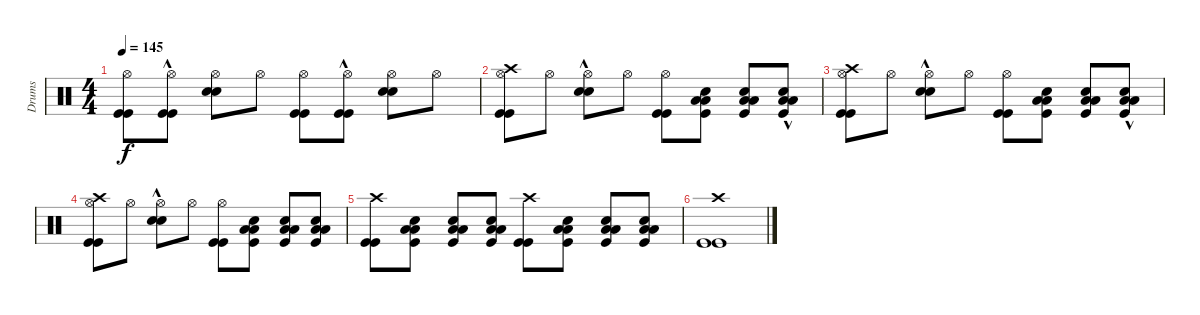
\track ("Drums" "Drums") {instrument percussion}
\staff {score}
\articulation defaults
\ts (4 4)
\tempo 145
\clef neutral
\ks c
("Kick (hit)" "Kick (hit)" "Hi-Hat (open)").8{dy f} ("Kick (hit)"{hac} "Kick (hit)"{hac} "Hi-Hat (open)").8 ("Snare (hit) 2" "Snare (hit) 2" "Hi-Hat (open)").8 "Hi-Hat (open)".8 ("Kick (hit)" "Kick (hit)" "Hi-Hat (open)").8 ("Kick (hit)"{hac} "Kick (hit)"{hac} "Hi-Hat (open)").8 ("Snare (hit) 2" "Snare (hit) 2" "Hi-Hat (open)").8 "Hi-Hat (open)".8 |
("Kick (hit)" "Kick (hit)" "Hi-Hat (open)" "Crash high (hit)").8 "Hi-Hat (open)".8 ("Snare (hit) 2"{hac} "Snare (hit) 2"{hac} "Hi-Hat (open)").8 "Hi-Hat (open)".8 ("Kick (hit)" "Kick (hit)" "Hi-Hat (open)").8 ("Kick (hit)" "Snare (hit) 2" "Low Floor Tom (hit)" "Low Floor Tom (hit)").8 ("Kick (hit)" "Snare (hit) 2" "Low Floor Tom (hit)" "Low Floor Tom (hit)").8 ("Kick (hit)" "Snare (hit) 2"{hac} "Low Floor Tom (hit)"{hac} "Low Floor Tom (hit)"{hac}).8 |
("Kick (hit)" "Kick (hit)" "Hi-Hat (open)" "Crash high (hit)").8 "Hi-Hat (open)".8 ("Snare (hit) 2"{hac} "Snare (hit) 2"{hac} "Hi-Hat (open)").8 "Hi-Hat (open)".8 ("Kick (hit)" "Kick (hit)" "Hi-Hat (open)").8 ("Kick (hit)" "Snare (hit) 2" "Low Floor Tom (hit)" "Low Floor Tom (hit)").8 ("Kick (hit)" "Snare (hit) 2" "Low Floor Tom (hit)" "Low Floor Tom (hit)").8 ("Kick (hit)" "Snare (hit) 2"{hac} "Low Floor Tom (hit)"{hac} "Low Floor Tom (hit)"{hac}).8 |
("Kick (hit)" "Kick (hit)" "Hi-Hat (open)" "Crash high (hit)").8 "Hi-Hat (open)".8 ("Snare (hit) 2"{hac} "Snare (hit) 2"{hac} "Hi-Hat (open)").8 "Hi-Hat (open)".8 ("Kick (hit)" "Kick (hit)" "Hi-Hat (open)").8 ("Kick (hit)" "Snare (hit) 2" "Low Floor Tom (hit)" "Low Floor Tom (hit)").8 ("Kick (hit)" "Snare (hit) 2" "Low Floor Tom (hit)" "Low Floor Tom (hit)").8 ("Kick (hit)" "Snare (hit) 2" "Low Floor Tom (hit)" "Low Floor Tom (hit)").8 |
("Kick (hit)" "Kick (hit)" "Crash high (hit)").8 ("Kick (hit)" "Snare (hit) 2" "Low Floor Tom (hit)" "Low Floor Tom (hit)").8 ("Kick (hit)" "Snare (hit) 2" "Low Floor Tom (hit)" "Low Floor Tom (hit)").8 ("Kick (hit)" "Snare (hit) 2" "Low Floor Tom (hit)" "Low Floor Tom (hit)").8 ("Kick (hit)" "Kick (hit)" "Crash high (hit)").8 ("Kick (hit)" "Snare (hit) 2" "Low Floor Tom (hit)" "Low Floor Tom (hit)").8 ("Kick (hit)" "Snare (hit) 2" "Low Floor Tom (hit)" "Low Floor Tom (hit)").8 ("Kick (hit)" "Snare (hit) 2" "Low Floor Tom (hit)" "Low Floor Tom (hit)").8 |
("Kick (hit)" "Kick (hit)" "Crash high (hit)").1
